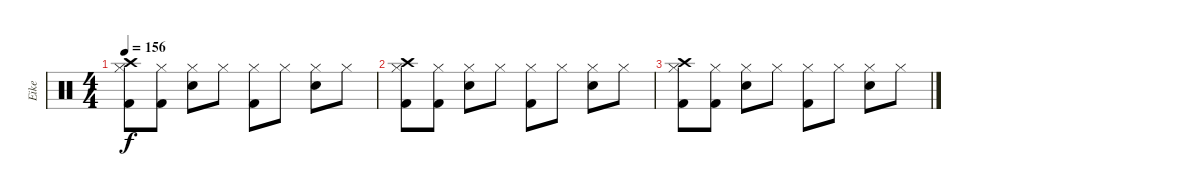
\track ("Eike" "Eike") {instrument percussion}
\staff {score}
\articulation defaults
\ts (4 4)
\tempo 156
\clef neutral
\ks c
("Hi-Hat (closed)" "Kick (hit) 2" "Crash high (hit)").8{dy f} ("Hi-Hat (closed)" "Kick (hit) 2").8 ("Hi-Hat (closed)" "Snare (hit) 2").8 "Hi-Hat (closed)".8 ("Hi-Hat (closed)" "Kick (hit) 2").8 "Hi-Hat (closed)".8 ("Hi-Hat (closed)" "Snare (hit) 2").8 "Hi-Hat (closed)".8 |
("Hi-Hat (closed)" "Kick (hit) 2" "Crash high (hit)").8 ("Hi-Hat (closed)" "Kick (hit) 2").8 ("Hi-Hat (closed)" "Snare (hit) 2").8 "Hi-Hat (closed)".8 ("Hi-Hat (closed)" "Kick (hit) 2").8 "Hi-Hat (closed)".8 ("Hi-Hat (closed)" "Snare (hit) 2").8 "Hi-Hat (closed)".8 |
("Hi-Hat (closed)" "Kick (hit) 2" "Crash high (hit)").8 ("Hi-Hat (closed)" "Kick (hit) 2").8 ("Hi-Hat (closed)" "Snare (hit) 2").8 "Hi-Hat (closed)".8 ("Hi-Hat (closed)" "Kick (hit) 2").8 "Hi-Hat (closed)".8 ("Hi-Hat (closed)" "Snare (hit) 2").8 "Hi-Hat (closed)".8
